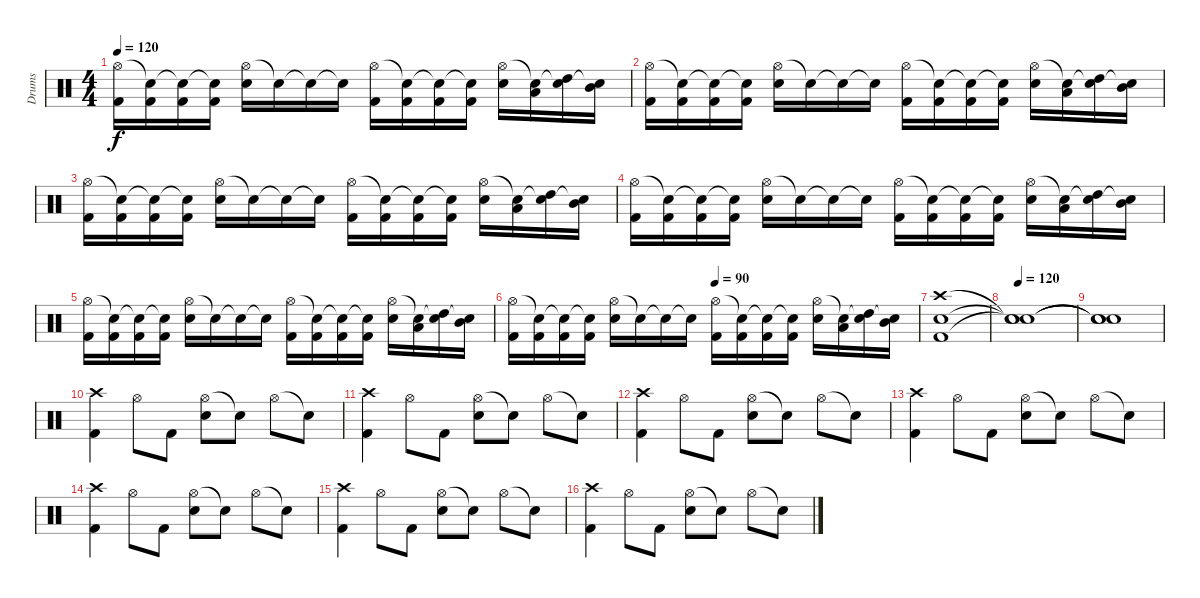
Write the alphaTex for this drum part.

\track ("Drums" "Drums") {instrument percussion}
\staff {score}
\articulation defaults
\ts (4 4)
\tempo 120
\clef neutral
\ks c
("Hi-Hat (open)" "Kick (hit) 2").16{dy f} ("Snare (hit)"{t} "Kick (hit) 2").16 ("Snare (hit)"{t} "Kick (hit) 2").16 ("Snare (hit)"{t} "Kick (hit) 2").16 ("Hi-Hat (open)" "Electric Snare (hit)").16 "Snare (hit)"{t}.16 "Snare (hit)"{t}.16 "Snare (hit)"{t}.16 ("Hi-Hat (open)" "Kick (hit) 2").16 ("Snare (hit)"{t} "Kick (hit) 2").16 ("Snare (hit)"{t} "Kick (hit) 2").16 ("Snare (hit)"{t} "Kick (hit) 2").16 ("Hi-Hat (open)" "Electric Snare (hit)").16 ("Snare (hit)"{t} "Low Tom (hit)").16 ("Snare (hit)"{t} "High Tom (hit)").16 ("Snare (hit)"{t} "Mid Tom (hit)").16 |
("Hi-Hat (open)" "Kick (hit) 2").16 ("Snare (hit)"{t} "Kick (hit) 2").16 ("Snare (hit)"{t} "Kick (hit) 2").16 ("Snare (hit)"{t} "Kick (hit) 2").16 ("Hi-Hat (open)" "Electric Snare (hit)").16 "Snare (hit)"{t}.16 "Snare (hit)"{t}.16 "Snare (hit)"{t}.16 ("Hi-Hat (open)" "Kick (hit) 2").16 ("Snare (hit)"{t} "Kick (hit) 2").16 ("Snare (hit)"{t} "Kick (hit) 2").16 ("Snare (hit)"{t} "Kick (hit) 2").16 ("Hi-Hat (open)" "Electric Snare (hit)").16 ("Snare (hit)"{t} "Low Tom (hit)").16 ("Snare (hit)"{t} "High Tom (hit)").16 ("Snare (hit)"{t} "Mid Tom (hit)").16 |
("Hi-Hat (open)" "Kick (hit) 2").16 ("Snare (hit)"{t} "Kick (hit) 2").16 ("Snare (hit)"{t} "Kick (hit) 2").16 ("Snare (hit)"{t} "Kick (hit) 2").16 ("Hi-Hat (open)" "Electric Snare (hit)").16 "Snare (hit)"{t}.16 "Snare (hit)"{t}.16 "Snare (hit)"{t}.16 ("Hi-Hat (open)" "Kick (hit) 2").16 ("Snare (hit)"{t} "Kick (hit) 2").16 ("Snare (hit)"{t} "Kick (hit) 2").16 ("Snare (hit)"{t} "Kick (hit) 2").16 ("Hi-Hat (open)" "Electric Snare (hit)").16 ("Snare (hit)"{t} "Low Tom (hit)").16 ("Snare (hit)"{t} "High Tom (hit)").16 ("Snare (hit)"{t} "Mid Tom (hit)").16 |
("Hi-Hat (open)" "Kick (hit) 2").16 ("Snare (hit)"{t} "Kick (hit) 2").16 ("Snare (hit)"{t} "Kick (hit) 2").16 ("Snare (hit)"{t} "Kick (hit) 2").16 ("Hi-Hat (open)" "Electric Snare (hit)").16 "Snare (hit)"{t}.16 "Snare (hit)"{t}.16 "Snare (hit)"{t}.16 ("Hi-Hat (open)" "Kick (hit) 2").16 ("Snare (hit)"{t} "Kick (hit) 2").16 ("Snare (hit)"{t} "Kick (hit) 2").16 ("Snare (hit)"{t} "Kick (hit) 2").16 ("Hi-Hat (open)" "Electric Snare (hit)").16 ("Snare (hit)"{t} "Low Tom (hit)").16 ("Snare (hit)"{t} "High Tom (hit)").16 ("Snare (hit)"{t} "Mid Tom (hit)").16 |
("Hi-Hat (open)" "Kick (hit) 2").16 ("Snare (hit)"{t} "Kick (hit) 2").16 ("Snare (hit)"{t} "Kick (hit) 2").16 ("Snare (hit)"{t} "Kick (hit) 2").16 ("Hi-Hat (open)" "Electric Snare (hit)").16 "Snare (hit)"{t}.16 "Snare (hit)"{t}.16 "Snare (hit)"{t}.16 ("Hi-Hat (open)" "Kick (hit) 2").16 ("Snare (hit)"{t} "Kick (hit) 2").16 ("Snare (hit)"{t} "Kick (hit) 2").16 ("Snare (hit)"{t} "Kick (hit) 2").16 ("Hi-Hat (open)" "Electric Snare (hit)").16 ("Snare (hit)"{t} "Low Tom (hit)").16 ("Snare (hit)"{t} "High Tom (hit)").16 ("Snare (hit)"{t} "Mid Tom (hit)").16 |
\tempo (90 0.5)
("Hi-Hat (open)" "Kick (hit) 2").16 ("Snare (hit)"{t} "Kick (hit) 2").16 ("Snare (hit)"{t} "Kick (hit) 2").16 ("Snare (hit)"{t} "Kick (hit) 2").16 ("Hi-Hat (open)" "Electric Snare (hit)").16 "Snare (hit)"{t}.16 "Snare (hit)"{t}.16 "Snare (hit)"{t}.16 ("Hi-Hat (open)" "Kick (hit) 2").16 ("Snare (hit)"{t} "Kick (hit) 2").16 ("Snare (hit)"{t} "Kick (hit) 2").16 ("Snare (hit)"{t} "Kick (hit) 2").16 ("Hi-Hat (open)" "Electric Snare (hit)").16 ("Snare (hit)"{t} "Low Tom (hit)").16 ("Snare (hit)"{t} "High Tom (hit)").16 ("Snare (hit)"{t} "Mid Tom (hit)").16 |
("Crash high (hit)" "Electric Snare (hit)" "Kick (hit) 2").1 |
\tempo 120
("Snare (hit)"{t} "Snare (hit)"{t} "Snare (hit)"{t}).1 |
("Snare (hit)"{t} "Snare (hit)"{t} "Snare (hit)"{t}).1 |
("Crash high (hit)" "Kick (hit) 2").4 "Hi-Hat (open)".8 "Kick (hit) 2".8 ("Hi-Hat (open)" "Electric Snare (hit)").8 "Snare (hit)"{t}.8 "Hi-Hat (open)".8 "Snare (hit)"{t}.8 |
("Crash high (hit)" "Kick (hit) 2").4 "Hi-Hat (open)".8 "Kick (hit) 2".8 ("Hi-Hat (open)" "Electric Snare (hit)").8 "Snare (hit)"{t}.8 "Hi-Hat (open)".8 "Snare (hit)"{t}.8 |
("Crash high (hit)" "Kick (hit) 2").4 "Hi-Hat (open)".8 "Kick (hit) 2".8 ("Hi-Hat (open)" "Electric Snare (hit)").8 "Snare (hit)"{t}.8 "Hi-Hat (open)".8 "Snare (hit)"{t}.8 |
("Crash high (hit)" "Kick (hit) 2").4 "Hi-Hat (open)".8 "Kick (hit) 2".8 ("Hi-Hat (open)" "Electric Snare (hit)").8 "Snare (hit)"{t}.8 "Hi-Hat (open)".8 "Snare (hit)"{t}.8 |
("Crash high (hit)" "Kick (hit) 2").4 "Hi-Hat (open)".8 "Kick (hit) 2".8 ("Hi-Hat (open)" "Electric Snare (hit)").8 "Snare (hit)"{t}.8 "Hi-Hat (open)".8 "Snare (hit)"{t}.8 |
("Crash high (hit)" "Kick (hit) 2").4 "Hi-Hat (open)".8 "Kick (hit) 2".8 ("Hi-Hat (open)" "Electric Snare (hit)").8 "Snare (hit)"{t}.8 "Hi-Hat (open)".8 "Snare (hit)"{t}.8 |
("Crash high (hit)" "Kick (hit) 2").4 "Hi-Hat (open)".8 "Kick (hit) 2".8 ("Hi-Hat (open)" "Electric Snare (hit)").8 "Snare (hit)"{t}.8 "Hi-Hat (open)".8 "Snare (hit)"{t}.8
